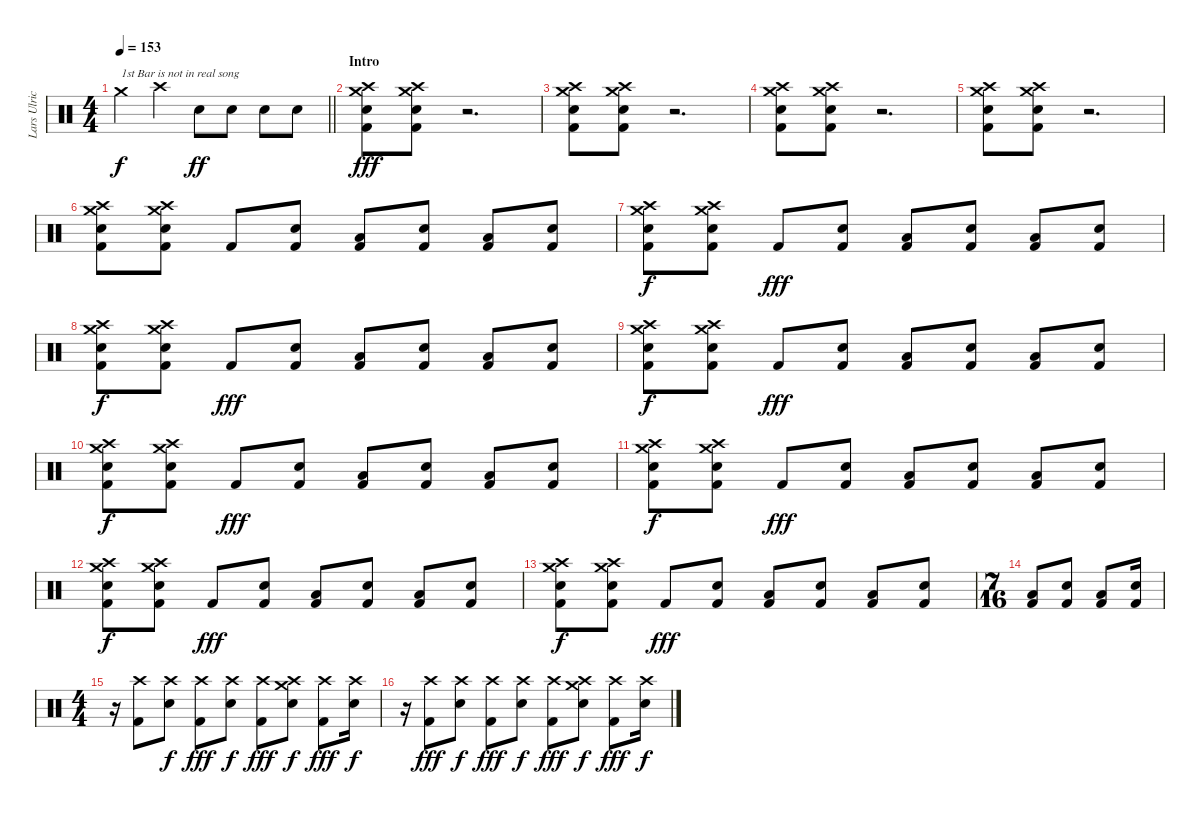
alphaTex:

\track ("Lars Ulrich (Drums)" "Lars Ulric") {instrument percussion}
\staff {score}
\articulation defaults
\ts (4 4)
\tempo 153
\clef neutral
\barLineRight lightlight
\ks c "Crash medium (hit)".4{txt "1st Bar is not in real song" dy f} "Crash high (hit)".4 "Electric Snare (hit)".8{dy ff} "Electric Snare (hit)".8 "Electric Snare (hit)".8 "Electric Snare (hit)".8
|
\section ("" "Intro")
("Crash medium (hit)" "Crash high (hit)" "Electric Snare (hit)" "Kick (hit) 2").8{dy fff} ("Crash medium (hit)" "Crash high (hit)" "Electric Snare (hit)" "Kick (hit) 2").8 r.2{d} |
("Crash medium (hit)" "Crash high (hit)" "Electric Snare (hit)" "Kick (hit) 2").8 ("Crash medium (hit)" "Crash high (hit)" "Electric Snare (hit)" "Kick (hit) 2").8 r.2{d} |
("Crash medium (hit)" "Crash high (hit)" "Electric Snare (hit)" "Kick (hit) 2").8 ("Crash medium (hit)" "Crash high (hit)" "Electric Snare (hit)" "Kick (hit) 2").8 r.2{d} |
("Crash medium (hit)" "Crash high (hit)" "Electric Snare (hit)" "Kick (hit) 2").8 ("Crash medium (hit)" "Crash high (hit)" "Electric Snare (hit)" "Kick (hit) 2").8 r.2{d} |
("Crash medium (hit)" "Crash high (hit)" "Electric Snare (hit)" "Kick (hit) 2").8 ("Crash medium (hit)" "Crash high (hit)" "Electric Snare (hit)" "Kick (hit) 2").8 "Kick (hit) 2".8 ("Electric Snare (hit)" "Kick (hit) 2").8 ("Low Floor Tom (hit)" "Kick (hit) 2").8 ("Electric Snare (hit)" "Kick (hit) 2").8 ("Low Floor Tom (hit)" "Kick (hit) 2").8 ("Electric Snare (hit)" "Kick (hit) 2").8 |
("Crash medium (hit)" "Crash high (hit)" "Electric Snare (hit)" "Kick (hit) 2").8{dy f} ("Crash medium (hit)" "Crash high (hit)" "Electric Snare (hit)" "Kick (hit) 2").8 "Kick (hit) 2".8{dy fff} ("Electric Snare (hit)" "Kick (hit) 2").8 ("Low Floor Tom (hit)" "Kick (hit) 2").8 ("Electric Snare (hit)" "Kick (hit) 2").8 ("Low Floor Tom (hit)" "Kick (hit) 2").8 ("Electric Snare (hit)" "Kick (hit) 2").8 |
("Crash medium (hit)" "Crash high (hit)" "Electric Snare (hit)" "Kick (hit) 2").8{dy f} ("Crash medium (hit)" "Crash high (hit)" "Electric Snare (hit)" "Kick (hit) 2").8 "Kick (hit) 2".8{dy fff} ("Electric Snare (hit)" "Kick (hit) 2").8 ("Low Floor Tom (hit)" "Kick (hit) 2").8 ("Electric Snare (hit)" "Kick (hit) 2").8 ("Low Floor Tom (hit)" "Kick (hit) 2").8 ("Electric Snare (hit)" "Kick (hit) 2").8 |
("Crash medium (hit)" "Crash high (hit)" "Electric Snare (hit)" "Kick (hit) 2").8{dy f} ("Crash medium (hit)" "Crash high (hit)" "Electric Snare (hit)" "Kick (hit) 2").8 "Kick (hit) 2".8{dy fff} ("Electric Snare (hit)" "Kick (hit) 2").8 ("Low Floor Tom (hit)" "Kick (hit) 2").8 ("Electric Snare (hit)" "Kick (hit) 2").8 ("Low Floor Tom (hit)" "Kick (hit) 2").8 ("Electric Snare (hit)" "Kick (hit) 2").8 |
("Crash medium (hit)" "Crash high (hit)" "Electric Snare (hit)" "Kick (hit) 2").8{dy f} ("Crash medium (hit)" "Crash high (hit)" "Electric Snare (hit)" "Kick (hit) 2").8 "Kick (hit) 2".8{dy fff} ("Electric Snare (hit)" "Kick (hit) 2").8 ("Low Floor Tom (hit)" "Kick (hit) 2").8 ("Electric Snare (hit)" "Kick (hit) 2").8 ("Low Floor Tom (hit)" "Kick (hit) 2").8 ("Electric Snare (hit)" "Kick (hit) 2").8 |
("Crash medium (hit)" "Crash high (hit)" "Electric Snare (hit)" "Kick (hit) 2").8{dy f} ("Crash medium (hit)" "Crash high (hit)" "Electric Snare (hit)" "Kick (hit) 2").8 "Kick (hit) 2".8{dy fff} ("Electric Snare (hit)" "Kick (hit) 2").8 ("Low Floor Tom (hit)" "Kick (hit) 2").8 ("Electric Snare (hit)" "Kick (hit) 2").8 ("Low Floor Tom (hit)" "Kick (hit) 2").8 ("Electric Snare (hit)" "Kick (hit) 2").8 |
("Crash medium (hit)" "Crash high (hit)" "Electric Snare (hit)" "Kick (hit) 2").8{dy f} ("Crash medium (hit)" "Crash high (hit)" "Electric Snare (hit)" "Kick (hit) 2").8 "Kick (hit) 2".8{dy fff} ("Electric Snare (hit)" "Kick (hit) 2").8 ("Low Floor Tom (hit)" "Kick (hit) 2").8 ("Electric Snare (hit)" "Kick (hit) 2").8 ("Low Floor Tom (hit)" "Kick (hit) 2").8 ("Electric Snare (hit)" "Kick (hit) 2").8 |
("Crash medium (hit)" "Crash high (hit)" "Electric Snare (hit)" "Kick (hit) 2").8{dy f} ("Crash medium (hit)" "Crash high (hit)" "Electric Snare (hit)" "Kick (hit) 2").8 "Kick (hit) 2".8{dy fff} ("Electric Snare (hit)" "Kick (hit) 2").8 ("Low Floor Tom (hit)" "Kick (hit) 2").8 ("Electric Snare (hit)" "Kick (hit) 2").8 ("Low Floor Tom (hit)" "Kick (hit) 2").8 ("Electric Snare (hit)" "Kick (hit) 2").8 |
\ts (7 16)
("Low Floor Tom (hit)" "Kick (hit) 2").8 ("Electric Snare (hit)" "Kick (hit) 2").8 ("Low Floor Tom (hit)" "Kick (hit) 2").8 ("Electric Snare (hit)" "Kick (hit) 2").16 |
\ts (4 4)
r.16 ("Crash high (hit)" "Kick (hit) 2").8 ("Crash high (hit)" "Electric Snare (hit)").8{dy f} ("Crash high (hit)" "Kick (hit) 2").8{dy fff} ("Crash high (hit)" "Electric Snare (hit)").8{dy f} ("Crash high (hit)" "Kick (hit) 2").8{dy fff} ("Crash high (hit)" "Crash medium (hit)" "Electric Snare (hit)").8{dy f} ("Crash high (hit)" "Kick (hit) 2").8{dy fff} ("Crash high (hit)" "Electric Snare (hit)").16{dy f} |
r.16 ("Crash high (hit)" "Kick (hit) 2").8{dy fff} ("Crash high (hit)" "Electric Snare (hit)").8{dy f} ("Crash high (hit)" "Kick (hit) 2").8{dy fff} ("Crash high (hit)" "Electric Snare (hit)").8{dy f} ("Crash high (hit)" "Kick (hit) 2").8{dy fff} ("Crash high (hit)" "Crash medium (hit)" "Electric Snare (hit)").8{dy f} ("Crash high (hit)" "Kick (hit) 2").8{dy fff} ("Crash high (hit)" "Electric Snare (hit)").16{dy f}
